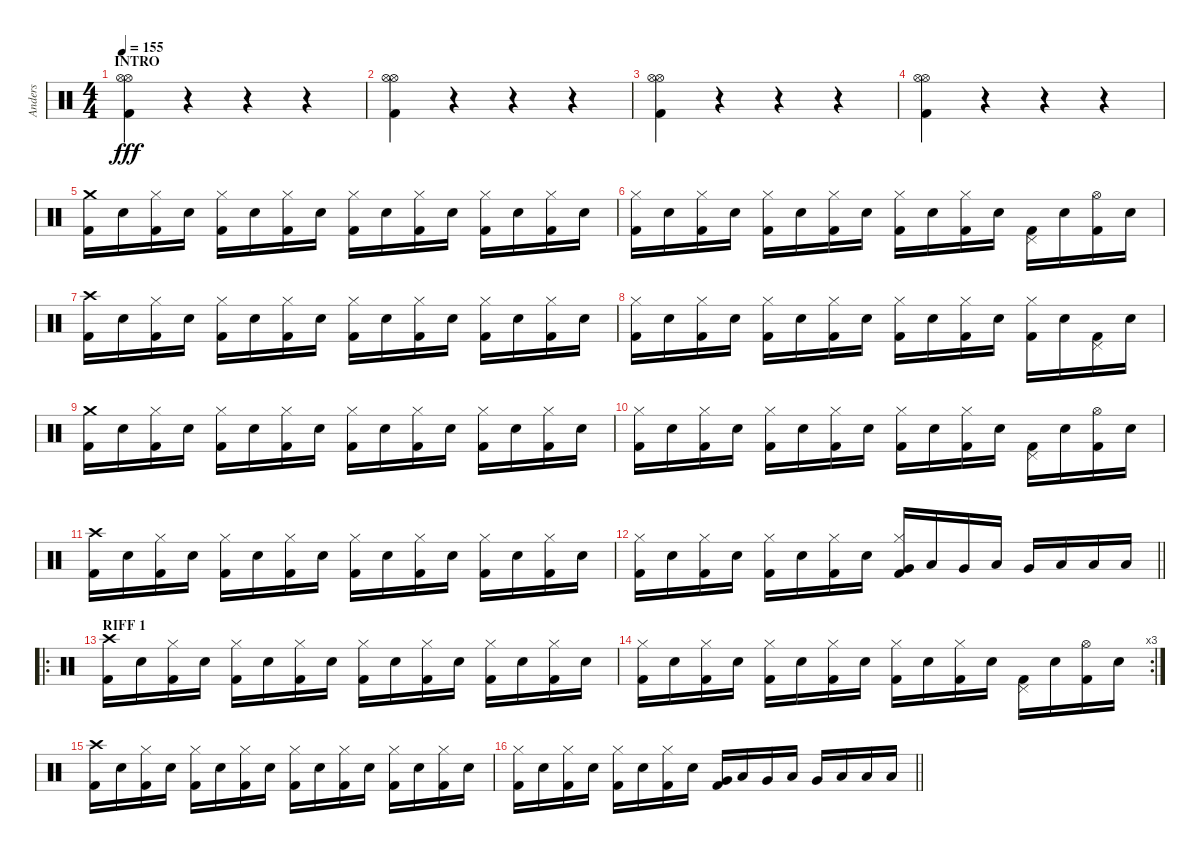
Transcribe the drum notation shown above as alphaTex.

\track ("Anders" "Anders") {instrument percussion}
\staff {score}
\articulation defaults
\ts (4 4)
\section ("" "INTRO")
\tempo 155
\clef neutral
\ks c
("Hi-Hat (open)" "Hi-Hat (open)" "Kick (hit) 2").4{dy fff} r.4 r.4 r.4 |
("Hi-Hat (open)" "Hi-Hat (open)" "Kick (hit) 2").4 r.4 r.4 r.4 |
("Hi-Hat (open)" "Hi-Hat (open)" "Kick (hit) 2").4 r.4 r.4 r.4 |
("Hi-Hat (open)" "Hi-Hat (open)" "Kick (hit) 2").4 r.4 r.4 r.4 |
("Crash medium (hit)" "Kick (hit) 2").16 "Snare (hit) 2".16 ("Hi-Hat (closed)" "Kick (hit) 2").16 "Snare (hit) 2".16 ("Hi-Hat (closed)" "Kick (hit) 2").16 "Snare (hit) 2".16 ("Hi-Hat (closed)" "Kick (hit) 2").16 "Snare (hit) 2".16 ("Hi-Hat (closed)" "Kick (hit) 2").16 "Snare (hit) 2".16 ("Hi-Hat (closed)" "Kick (hit) 2").16 "Snare (hit) 2".16 ("Hi-Hat (closed)" "Kick (hit) 2").16 "Snare (hit) 2".16 ("Hi-Hat (closed)" "Kick (hit) 2").16 "Snare (hit) 2".16 |
("Hi-Hat (closed)" "Kick (hit) 2").16 "Snare (hit) 2".16 ("Hi-Hat (closed)" "Kick (hit) 2").16 "Snare (hit) 2".16 ("Hi-Hat (closed)" "Kick (hit) 2").16 "Snare (hit) 2".16 ("Hi-Hat (closed)" "Kick (hit) 2").16 "Snare (hit) 2".16 ("Hi-Hat (closed)" "Kick (hit) 2").16 "Snare (hit) 2".16 ("Hi-Hat (closed)" "Kick (hit) 2").16 "Snare (hit) 2".16 ("Pedal Hi-Hat (hit)" "Kick (hit) 2").16 "Snare (hit) 2".16 ("Hi-Hat (open)" "Kick (hit) 2").16 "Snare (hit) 2".16 |
("Crash high (hit)" "Kick (hit) 2").16 "Snare (hit) 2".16 ("Hi-Hat (closed)" "Kick (hit) 2").16 "Snare (hit) 2".16 ("Hi-Hat (closed)" "Kick (hit) 2").16 "Snare (hit) 2".16 ("Hi-Hat (closed)" "Kick (hit) 2").16 "Snare (hit) 2".16 ("Hi-Hat (closed)" "Kick (hit) 2").16 "Snare (hit) 2".16 ("Hi-Hat (closed)" "Kick (hit) 2").16 "Snare (hit) 2".16 ("Hi-Hat (closed)" "Kick (hit) 2").16 "Snare (hit) 2".16 ("Hi-Hat (closed)" "Kick (hit) 2").16 "Snare (hit) 2".16 |
("Hi-Hat (closed)" "Kick (hit) 2").16 "Snare (hit) 2".16 ("Hi-Hat (closed)" "Kick (hit) 2").16 "Snare (hit) 2".16 ("Hi-Hat (closed)" "Kick (hit) 2").16 "Snare (hit) 2".16 ("Hi-Hat (closed)" "Kick (hit) 2").16 "Snare (hit) 2".16 ("Hi-Hat (closed)" "Kick (hit) 2").16 "Snare (hit) 2".16 ("Hi-Hat (closed)" "Kick (hit) 2").16 "Snare (hit) 2".16 ("Hi-Hat (closed)" "Kick (hit) 2").16 "Snare (hit) 2".16 ("Pedal Hi-Hat (hit)" "Kick (hit) 2").16 "Snare (hit) 2".16 |
("Crash medium (hit)" "Kick (hit) 2").16 "Snare (hit) 2".16 ("Hi-Hat (closed)" "Kick (hit) 2").16 "Snare (hit) 2".16 ("Hi-Hat (closed)" "Kick (hit) 2").16 "Snare (hit) 2".16 ("Hi-Hat (closed)" "Kick (hit) 2").16 "Snare (hit) 2".16 ("Hi-Hat (closed)" "Kick (hit) 2").16 "Snare (hit) 2".16 ("Hi-Hat (closed)" "Kick (hit) 2").16 "Snare (hit) 2".16 ("Hi-Hat (closed)" "Kick (hit) 2").16 "Snare (hit) 2".16 ("Hi-Hat (closed)" "Kick (hit) 2").16 "Snare (hit) 2".16 |
("Hi-Hat (closed)" "Kick (hit) 2").16 "Snare (hit) 2".16 ("Hi-Hat (closed)" "Kick (hit) 2").16 "Snare (hit) 2".16 ("Hi-Hat (closed)" "Kick (hit) 2").16 "Snare (hit) 2".16 ("Hi-Hat (closed)" "Kick (hit) 2").16 "Snare (hit) 2".16 ("Hi-Hat (closed)" "Kick (hit) 2").16 "Snare (hit) 2".16 ("Hi-Hat (closed)" "Kick (hit) 2").16 "Snare (hit) 2".16 ("Pedal Hi-Hat (hit)" "Kick (hit) 2").16 "Snare (hit) 2".16 ("Hi-Hat (open)" "Kick (hit) 2").16 "Snare (hit) 2".16 |
("Crash high (hit)" "Kick (hit) 2").16 "Snare (hit) 2".16 ("Hi-Hat (closed)" "Kick (hit) 2").16 "Snare (hit) 2".16 ("Hi-Hat (closed)" "Kick (hit) 2").16 "Snare (hit) 2".16 ("Hi-Hat (closed)" "Kick (hit) 2").16 "Snare (hit) 2".16 ("Hi-Hat (closed)" "Kick (hit) 2").16 "Snare (hit) 2".16 ("Hi-Hat (closed)" "Kick (hit) 2").16 "Snare (hit) 2".16 ("Hi-Hat (closed)" "Kick (hit) 2").16 "Snare (hit) 2".16 ("Hi-Hat (closed)" "Kick (hit) 2").16 "Snare (hit) 2".16 |
\barLineRight lightlight
("Hi-Hat (closed)" "Kick (hit) 2").16 "Snare (hit) 2".16 ("Hi-Hat (closed)" "Kick (hit) 2").16 "Snare (hit) 2".16 ("Hi-Hat (closed)" "Kick (hit) 2").16 "Snare (hit) 2".16 ("Hi-Hat (closed)" "Kick (hit) 2").16 "Snare (hit) 2".16 ("Hi-Hat (closed)" "Very Low Tom (hit)" "Kick (hit) 2").16 "Low Tom (hit)".16 "Very Low Tom (hit)".16 "Low Tom (hit)".16 "Very Low Tom (hit)".16 "Low Tom (hit)".16 "Low Floor Tom (hit)".16 "Low Tom (hit)".16 |
\ro
\section ("" "RIFF 1")
("Crash high (hit)" "Kick (hit) 2").16 "Snare (hit) 2".16 ("Hi-Hat (closed)" "Kick (hit) 2").16 "Snare (hit) 2".16 ("Hi-Hat (closed)" "Kick (hit) 2").16 "Snare (hit) 2".16 ("Hi-Hat (closed)" "Kick (hit) 2").16 "Snare (hit) 2".16 ("Hi-Hat (closed)" "Kick (hit) 2").16 "Snare (hit) 2".16 ("Hi-Hat (closed)" "Kick (hit) 2").16 "Snare (hit) 2".16 ("Hi-Hat (closed)" "Kick (hit) 2").16 "Snare (hit) 2".16 ("Hi-Hat (closed)" "Kick (hit) 2").16 "Snare (hit) 2".16 |
\rc 3
("Hi-Hat (closed)" "Kick (hit) 2").16 "Snare (hit) 2".16 ("Hi-Hat (closed)" "Kick (hit) 2").16 "Snare (hit) 2".16 ("Hi-Hat (closed)" "Kick (hit) 2").16 "Snare (hit) 2".16 ("Hi-Hat (closed)" "Kick (hit) 2").16 "Snare (hit) 2".16 ("Hi-Hat (closed)" "Kick (hit) 2").16 "Snare (hit) 2".16 ("Hi-Hat (closed)" "Kick (hit) 2").16 "Snare (hit) 2".16 ("Pedal Hi-Hat (hit)" "Kick (hit) 2").16 "Snare (hit) 2".16 ("Hi-Hat (open)" "Kick (hit) 2").16 "Snare (hit) 2".16 |
("Crash high (hit)" "Kick (hit) 2").16 "Snare (hit) 2".16 ("Hi-Hat (closed)" "Kick (hit) 2").16 "Snare (hit) 2".16 ("Hi-Hat (closed)" "Kick (hit) 2").16 "Snare (hit) 2".16 ("Hi-Hat (closed)" "Kick (hit) 2").16 "Snare (hit) 2".16 ("Hi-Hat (closed)" "Kick (hit) 2").16 "Snare (hit) 2".16 ("Hi-Hat (closed)" "Kick (hit) 2").16 "Snare (hit) 2".16 ("Hi-Hat (closed)" "Kick (hit) 2").16 "Snare (hit) 2".16 ("Hi-Hat (closed)" "Kick (hit) 2").16 "Snare (hit) 2".16 |
\barLineRight lightlight
("Hi-Hat (closed)" "Kick (hit) 2").16 "Snare (hit) 2".16 ("Hi-Hat (closed)" "Kick (hit) 2").16 "Snare (hit) 2".16 ("Hi-Hat (closed)" "Kick (hit) 2").16 "Snare (hit) 2".16 ("Hi-Hat (closed)" "Kick (hit) 2").16 "Snare (hit) 2".16 ("Very Low Tom (hit)" "Kick (hit) 2").16 "Low Tom (hit)".16 "Very Low Tom (hit)".16 "Low Tom (hit)".16 "Very Low Tom (hit)".16 "Low Tom (hit)".16 "Low Floor Tom (hit)".16 "Low Tom (hit)".16
